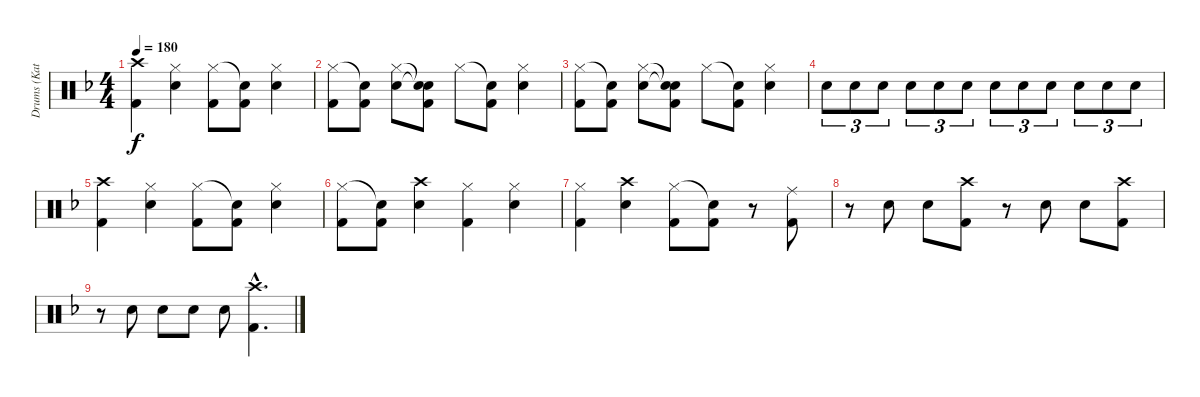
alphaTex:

\track ("Drums (Katsuji)" "Drums (Kat") {instrument percussion}
\staff {score}
\articulation defaults
\ts (4 4)
\tempo 180
\clef neutral
\ks f
("Crash high (hit)" "Kick (hit) 2").4{dy f} ("Hi-Hat (closed)" "Snare (hit) 2").4 ("Hi-Hat (closed)" "Kick (hit) 2").8 ("Snare (hit)"{t} "Kick (hit) 2").8 ("Hi-Hat (closed)" "Snare (hit) 2").4 |
("Hi-Hat (closed)" "Kick (hit) 2").8 ("Snare (hit)"{t} "Kick (hit) 2").8 ("Hi-Hat (closed)" "Snare (hit) 2").8 ("Snare (hit)"{t} "Snare (hit)"{t} "Kick (hit) 2").8 "Hi-Hat (closed)".8 ("Snare (hit)"{t} "Kick (hit) 2").8 ("Hi-Hat (closed)" "Snare (hit) 2").4 |
("Hi-Hat (closed)" "Kick (hit) 2").8 ("Snare (hit)"{t} "Kick (hit) 2").8 ("Hi-Hat (closed)" "Snare (hit) 2").8 ("Snare (hit)"{t} "Snare (hit)"{t} "Kick (hit) 2").8 "Hi-Hat (closed)".8 ("Snare (hit)"{t} "Kick (hit) 2").8 ("Hi-Hat (closed)" "Snare (hit) 2").4 |
"Snare (hit) 2".8{tu (3 2)} "Snare (hit) 2".8{tu (3 2)} "Snare (hit) 2".8{tu (3 2)} "Snare (hit) 2".8{tu (3 2)} "Snare (hit) 2".8{tu (3 2)} "Snare (hit) 2".8{tu (3 2)} "Snare (hit) 2".8{tu (3 2)} "Snare (hit) 2".8{tu (3 2)} "Snare (hit) 2".8{tu (3 2)} "Snare (hit) 2".8{tu (3 2)} "Snare (hit) 2".8{tu (3 2)} "Snare (hit) 2".8{tu (3 2)} |
("Crash high (hit)" "Kick (hit) 2").4 ("Hi-Hat (closed)" "Snare (hit) 2").4 ("Hi-Hat (closed)" "Kick (hit) 2").8 ("Snare (hit)"{t} "Kick (hit) 2").8 ("Hi-Hat (closed)" "Snare (hit) 2").4 |
("Hi-Hat (closed)" "Kick (hit) 2").8 ("Snare (hit)"{t} "Kick (hit) 2").8 ("Crash high (hit)" "Snare (hit) 2").4 ("Hi-Hat (closed)" "Kick (hit) 2").4 ("Hi-Hat (closed)" "Snare (hit) 2").4 |
("Hi-Hat (closed)" "Kick (hit) 2").4 ("Crash high (hit)" "Snare (hit) 2").4 ("Hi-Hat (closed)" "Kick (hit) 2").8 ("Snare (hit)"{t} "Kick (hit) 2").8 r.8 ("Ride (middle)" "Kick (hit) 2").8 |
r.8 "Snare (hit) 2".8 "Snare (hit) 2".8 ("Crash high (hit)" "Kick (hit) 2").8 r.8 "Snare (hit) 2".8 "Snare (hit) 2".8 ("Crash high (hit)" "Kick (hit) 2").8 |
r.8 "Snare (hit) 2".8 "Snare (hit) 2".8 "Snare (hit) 2".8 "Snare (hit) 2".8 ("Crash high (hit)"{hac} "Kick (hit) 2"{hac}).4{d}
